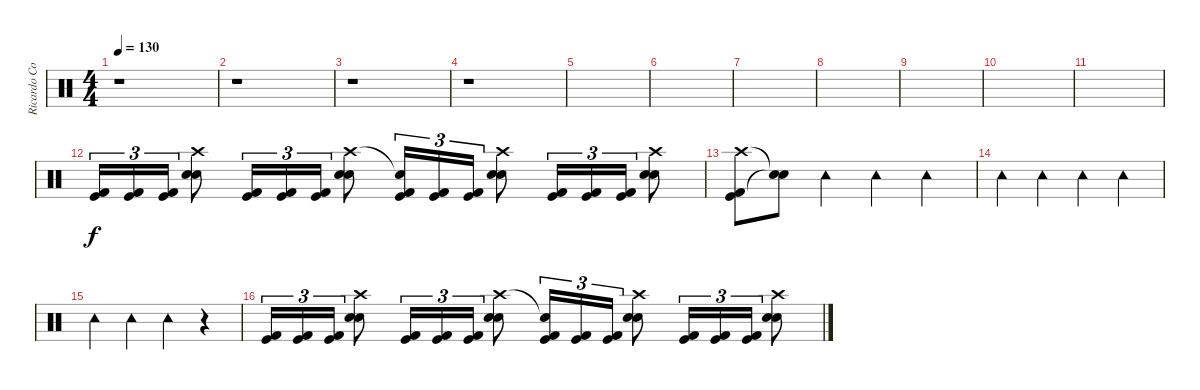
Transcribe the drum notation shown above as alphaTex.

\track ("Ricardo Confessori" "Ricardo Co") {instrument percussion}
\staff {score}
\articulation defaults
\ts (4 4)
\tempo 130
\clef neutral
\ks c
r.1{dy f} |
r.1 |
r.1 |
r.1 |
|
|
|
|
|
|
|
("Kick (hit) 2" "Kick (hit)").16{tu (3 2)} ("Kick (hit) 2" "Kick (hit)").16{tu (3 2)} ("Kick (hit) 2" "Kick (hit)").16{tu (3 2)} ("Crash high (hit)" "Electric Snare (hit)" "Snare (hit) 2").8 ("Kick (hit)" "Kick (hit) 2").16{tu (3 2)} ("Kick (hit)" "Kick (hit) 2").16{tu (3 2)} ("Kick (hit)" "Kick (hit) 2").16{tu (3 2)} ("Crash high (hit)" "Electric Snare (hit)" "Snare (hit) 2").8 ("Snare (hit)"{t} "Kick (hit)" "Kick (hit) 2").16{tu (3 2)} ("Kick (hit)" "Kick (hit) 2").16{tu (3 2)} ("Kick (hit)" "Kick (hit) 2").16{tu (3 2)} ("Crash high (hit)" "Electric Snare (hit)" "Snare (hit) 2").8 ("Kick (hit)" "Kick (hit) 2").16{tu (3 2)} ("Kick (hit)" "Kick (hit) 2").16{tu (3 2)} ("Kick (hit)" "Kick (hit) 2").16{tu (3 2)} ("Crash high (hit)" "Electric Snare (hit)" "Snare (hit) 2").8 |
("Crash high (hit)" "Kick (hit)" "Kick (hit) 2").8 ("Snare (hit)"{t} "Snare (hit)"{t}).8 "Tambourine (hit)".4 "Tambourine (hit)".4 "Tambourine (hit)".4 |
"Tambourine (hit)".4 "Tambourine (hit)".4 "Tambourine (hit)".4 "Tambourine (hit)".4 |
"Tambourine (hit)".4 "Tambourine (hit)".4 "Tambourine (hit)".4 r.4 |
("Kick (hit)" "Kick (hit) 2").16{tu (3 2)} ("Kick (hit)" "Kick (hit) 2").16{tu (3 2)} ("Kick (hit)" "Kick (hit) 2").16{tu (3 2)} ("Crash high (hit)" "Electric Snare (hit)" "Snare (hit) 2").8 ("Kick (hit)" "Kick (hit) 2").16{tu (3 2)} ("Kick (hit)" "Kick (hit) 2").16{tu (3 2)} ("Kick (hit)" "Kick (hit) 2").16{tu (3 2)} ("Crash high (hit)" "Electric Snare (hit)" "Snare (hit) 2").8 ("Snare (hit)"{t} "Kick (hit)" "Kick (hit) 2").16{tu (3 2)} ("Kick (hit) 2" "Kick (hit)").16{tu (3 2)} ("Kick (hit) 2" "Kick (hit)").16{tu (3 2)} ("Crash high (hit)" "Electric Snare (hit)" "Snare (hit) 2").8 ("Kick (hit)" "Kick (hit) 2").16{tu (3 2)} ("Kick (hit)" "Kick (hit) 2").16{tu (3 2)} ("Kick (hit)" "Kick (hit) 2").16{tu (3 2)} ("Crash high (hit)" "Electric Snare (hit)" "Snare (hit) 2").8
